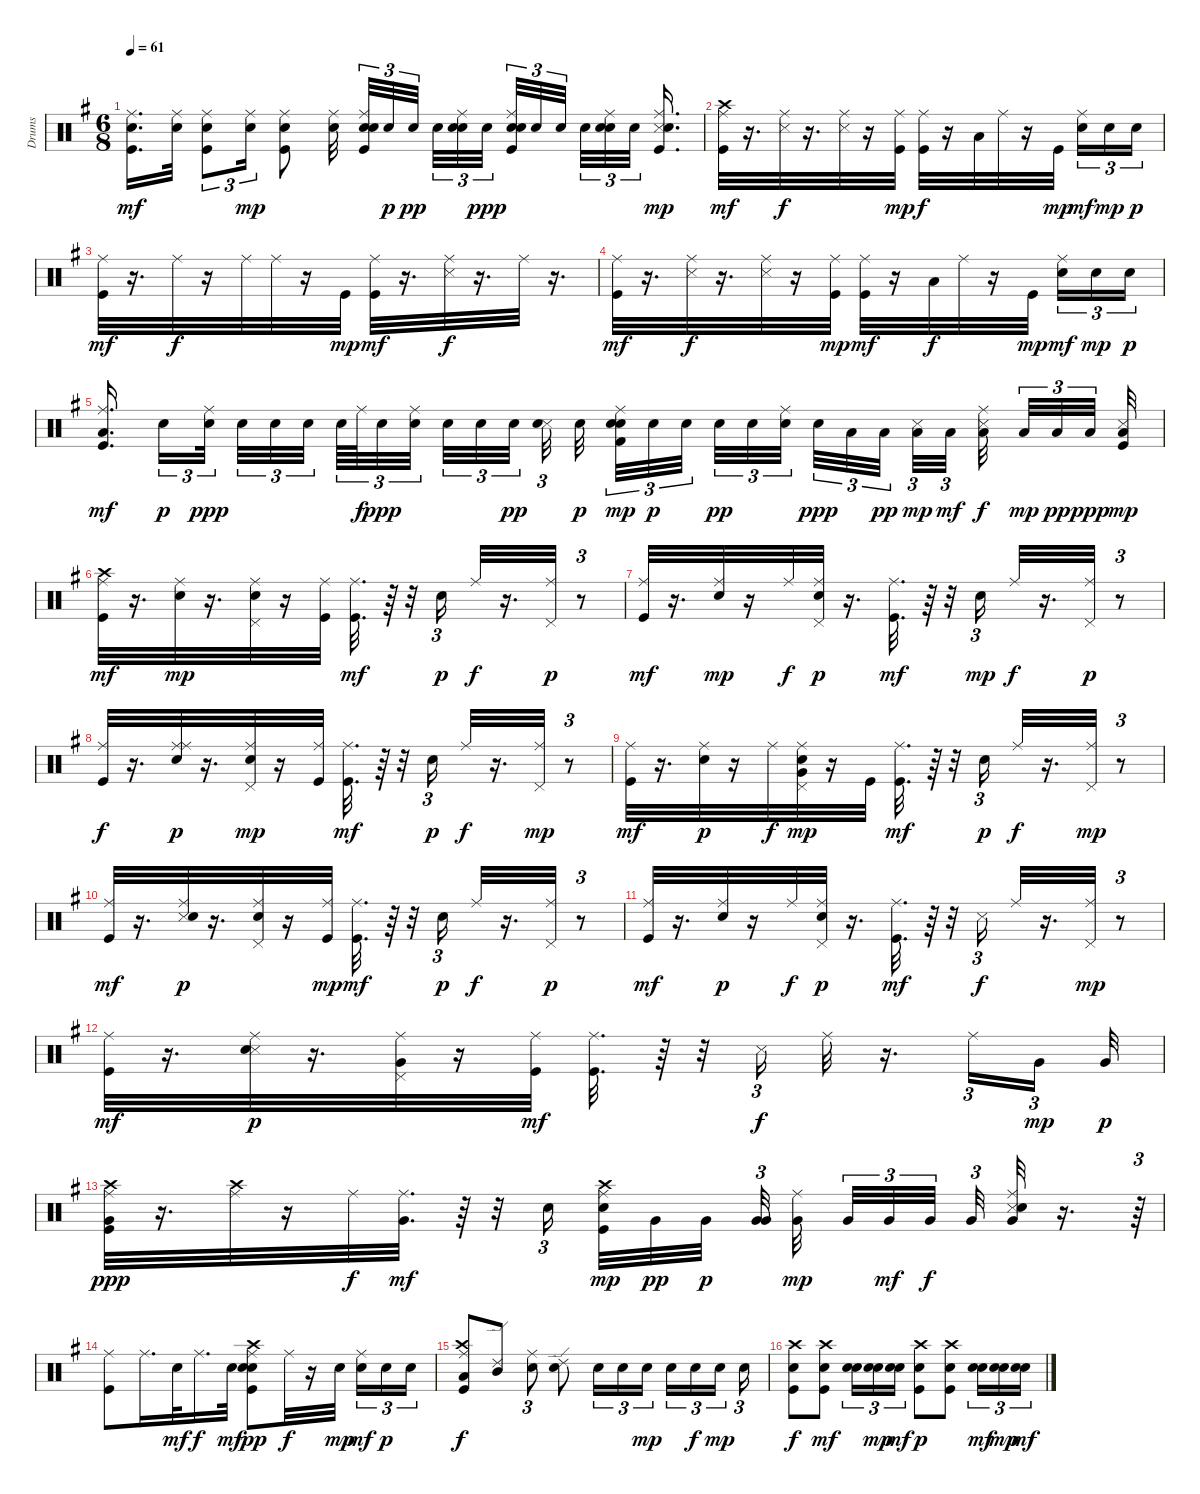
\track ("Drums" "Drums") {instrument percussion}
\staff {score}
\articulation defaults
\ts (6 8)
\tempo 61
\clef neutral
\ks g
("Kick (hit)" "Electric Snare (hit)" "Ride (middle)").16{d dy mf} ("Electric Snare (hit)" "Ride (middle)").32 ("Kick (hit)" "Electric Snare (hit)" "Ride (middle)").8{tu (3 2)} ("Electric Snare (hit)" "Ride (middle)").16{tu (3 2) dy mp} ("Kick (hit)" "Electric Snare (hit)" "Ride (middle)").8 ("Electric Snare (hit)" "Ride (middle)").32{beam splitsecondary} ("Snare (hit) 2" "Kick (hit)" "Electric Snare (hit)" "Ride (middle)").32{tu (3 2)} "Snare (hit) 2".32{tu (3 2) dy p} "Snare (hit) 2".32{tu (3 2) dy pp beam splitsecondary} "Snare (hit) 2".32{tu (3 2)} ("Snare (hit) 2" "Electric Snare (hit)" "Ride (middle)").32{tu (3 2)} "Snare (hit) 2".32{tu (3 2) dy ppp beam splitsecondary} ("Kick (hit)" "Snare (hit) 2" "Electric Snare (hit)" "Ride (middle)").32{tu (3 2)} "Snare (hit) 2".32{tu (3 2)} "Snare (hit) 2".32{tu (3 2) beam splitsecondary} "Snare (hit) 2".32{tu (3 2)} ("Snare (hit) 2" "Electric Snare (hit)" "Ride (middle)").32{tu (3 2)} "Snare (hit) 2".32{tu (3 2) beam splitsecondary} ("Kick (hit)" "Snare (side stick) 3" "Snare (hit) 2" "Ride (middle)").16{d dy mp} |
("Kick (hit)" "Crash high (hit)" "Ride (middle)").32{dy mf} r.16{d} ("Snare (side stick) 3" "Ride (middle)").32{dy f} r.16{d} ("Snare (side stick) 3" "Ride (middle)").32 r.16 ("Kick (hit)" "Ride (middle)").32{dy mp} ("Kick (hit)" "Ride (middle)").32{dy f} r.16 "Low Tom (hit)".32 "Ride (middle)".32 r.16 "Kick (hit)".32{dy mp beam splitsecondary} ("Electric Snare (hit)" "Ride (middle)").16{tu (3 2) dy mf} "Electric Snare (hit)".16{tu (3 2) dy mp} "Electric Snare (hit)".16{tu (3 2) dy p} |
("Kick (hit)" "Ride (middle)").32{dy mf} r.16{d} "Ride (middle)".32{dy f} r.16 "Ride (middle)".32 "Ride (middle)".32 r.16 "Kick (hit)".32{dy mp} ("Kick (hit)" "Ride (middle)").32{dy mf} r.16{d} ("Snare (side stick) 3" "Ride (middle)").32{dy f} r.16{d} "Ride (middle)".32 r.16{d} |
("Kick (hit)" "Ride (middle)").32{dy mf} r.16{d} ("Snare (side stick) 3" "Ride (middle)").32{dy f} r.16{d} ("Snare (side stick) 3" "Ride (middle)").32 r.16 ("Kick (hit)" "Ride (middle)").32{dy mp} ("Kick (hit)" "Ride (middle)").32{dy mf} r.16 "Low Tom (hit)".32{dy f} "Ride (middle)".32 r.16 "Kick (hit)".32{dy mp beam splitsecondary} ("Electric Snare (hit)" "Ride (middle)").16{tu (3 2) dy mf} "Electric Snare (hit)".16{tu (3 2) dy mp} "Electric Snare (hit)".16{tu (3 2) dy p} |
("Kick (hit)" "Low Tom (hit)" "Ride (middle)").16{d dy mf beam splitsecondary} "Electric Snare (hit)".16{tu (3 2) dy p} ("Snare (hit) 2" "Ride (middle)").32{tu (3 2) dy ppp beam splitsecondary} "Snare (hit) 2".32{tu (3 2)} "Snare (hit) 2".32{tu (3 2)} "Snare (hit) 2".32{tu (3 2) beam splitsecondary} "Snare (hit) 2".64{tu (3 2)} "Ride (middle)".64{tu (3 2) dy f} "Snare (hit) 2".32{tu (3 2) dy ppp} ("Snare (hit) 2" "Ride (middle)").32{tu (3 2) beam splitsecondary} "Snare (hit) 2".32{tu (3 2)} "Snare (hit) 2".32{tu (3 2)} "Snare (hit) 2".32{tu (3 2) dy pp beam splitsecondary} ("Snare (side stick) 3" "Snare (hit) 2").32{tu (3 2)} "Snare (hit) 2".32{dy p} ("Ride (middle)" "Snare (hit) 2" "Kick (hit) 2" "Snare (hit) 2").32{tu (3 2) dy mp} "Snare (hit) 2".32{tu (3 2) dy p} "Snare (hit) 2".32{tu (3 2) beam splitsecondary} "Snare (hit) 2".32{tu (3 2) dy pp} "Snare (hit) 2".32{tu (3 2)} ("Snare (hit) 2" "Ride (middle)").32{tu (3 2) beam splitsecondary} "Snare (hit) 2".32{tu (3 2) dy ppp} "Low Floor Tom (hit)".32{tu (3 2)} "Low Floor Tom (hit)".32{tu (3 2) dy pp beam splitsecondary} ("Snare (side stick) 3" "Low Floor Tom (hit)").32{tu (3 2) dy mp} "Low Floor Tom (hit)".32{tu (3 2) dy mf beam splitsecondary} ("Low Floor Tom (hit)" "Ride (middle)" "Snare (side stick) 3").32{dy f beam splitsecondary} "Low Floor Tom (hit)".32{tu (3 2) dy mp} "Low Floor Tom (hit)".32{tu (3 2) dy pp} "Low Floor Tom (hit)".32{tu (3 2) dy ppp beam splitsecondary} ("Kick (hit)" "Low Floor Tom (hit)" "Snare (side stick) 3").32{dy mp} |
("Kick (hit)" "Crash high (hit)" "Ride (middle)").32{dy mf} r.16{d} ("Electric Snare (hit)" "Ride (middle)").32{dy mp} r.16{d} ("Electric Snare (hit)" "Pedal Hi-Hat (hit)" "Ride (middle)").32 r.16 ("Kick (hit)" "Ride (middle)").32 ("Kick (hit)" "Ride (middle)").32{d dy mf} r.64 r.32 "Snare (hit) 2".16{tu (3 2) dy p} "Ride (middle)".32{dy f} r.16{d} ("Pedal Hi-Hat (hit)" "Ride (middle)").32{dy p} r.8{tu (3 2)} |
("Kick (hit)" "Ride (middle)").32{dy mf} r.16{d} ("Electric Snare (hit)" "Ride (middle)").32{dy mp} r.16 "Ride (middle)".32{dy f} ("Electric Snare (hit)" "Pedal Hi-Hat (hit)" "Ride (middle)").32{dy p} r.16{d} ("Kick (hit)" "Ride (middle)").32{d dy mf} r.64 r.32 "Snare (hit) 2".16{tu (3 2) dy mp} "Ride (middle)".32{dy f} r.16{d} ("Pedal Hi-Hat (hit)" "Ride (middle)").32{dy p} r.8{tu (3 2)} |
("Kick (hit)" "Ride (middle)").32{dy f} r.16{d} ("Electric Snare (hit)" "Ride (middle)" "Ride (middle)").32{dy p} r.16{d} ("Electric Snare (hit)" "Pedal Hi-Hat (hit)" "Ride (middle)").32{dy mp} r.16 ("Kick (hit)" "Ride (middle)").32 ("Kick (hit)" "Ride (middle)").32{d dy mf} r.64 r.32 "Snare (hit) 2".16{tu (3 2) dy p} "Ride (middle)".32{dy f} r.16{d} ("Pedal Hi-Hat (hit)" "Ride (middle)").32{dy mp} r.8{tu (3 2)} |
("Kick (hit)" "Ride (middle)").32{dy mf} r.16{d} ("Electric Snare (hit)" "Ride (middle)").32{dy p} r.16 "Ride (middle)".32{dy f} ("Electric Snare (hit)" "Very Low Tom (hit)" "Pedal Hi-Hat (hit)" "Ride (middle)").32{dy mp} r.16 "Kick (hit)".32 ("Kick (hit)" "Ride (middle)").32{d dy mf} r.64 r.32 "Snare (hit) 2".16{tu (3 2) dy p} "Ride (middle)".32{dy f} r.16{d} ("Pedal Hi-Hat (hit)" "Ride (middle)").32{dy mp} r.8{tu (3 2)} |
("Kick (hit)" "Ride (middle)").32{dy mf} r.16{d} ("Snare (side stick) 3" "Electric Snare (hit)" "Ride (middle)").32{dy p} r.16{d} ("Electric Snare (hit)" "Pedal Hi-Hat (hit)" "Ride (middle)").32 r.16 ("Kick (hit)" "Ride (middle)").32{dy mp} ("Kick (hit)" "Ride (middle)").32{d dy mf} r.64 r.32 "Snare (hit) 2".16{tu (3 2) dy p} "Ride (middle)".32{dy f} r.16{d} ("Pedal Hi-Hat (hit)" "Ride (middle)").32{dy p} r.8{tu (3 2)} |
("Kick (hit)" "Ride (middle)").32{dy mf} r.16{d} ("Electric Snare (hit)" "Ride (middle)").32{dy p} r.16 "Ride (middle)".32{dy f} ("Electric Snare (hit)" "Pedal Hi-Hat (hit)" "Ride (middle)").32{dy p} r.16{d} ("Kick (hit)" "Ride (middle)").32{d dy mf} r.64 r.32 "Snare (side stick) 3".16{tu (3 2) dy f} "Ride (middle)".32 r.16{d} ("Pedal Hi-Hat (hit)" "Ride (middle)").32{dy mp} r.8{tu (3 2)} |
("Kick (hit)" "Ride (middle)").32{dy mf} r.16{d} ("Snare (side stick) 3" "Electric Snare (hit)" "Ride (middle)").32{dy p} r.16{d} ("Very Low Tom (hit)" "Pedal Hi-Hat (hit)" "Ride (middle)").32 r.16 ("Kick (hit)" "Ride (middle)").32{dy mf} ("Kick (hit)" "Ride (middle)").32{d} r.64 r.32 "Snare (side stick) 3".16{tu (3 2) dy f} "Ride (middle)".32 r.16{d} "Ride (middle)".16{tu (3 2)} "Very Low Tom (hit)".16{tu (3 2) dy mp beam splitsecondary} "Very Low Tom (hit)".32{dy p} |
("Kick (hit)" "Very Low Tom (hit)" "Crash high (hit)" "Ride (middle)").32{dy ppp} r.16{d} ("Crash high (hit)" "Ride (middle)").32 r.16 "Ride (middle)".32{dy f} ("Very Low Tom (hit)" "Ride (middle)").32{d dy mf} r.64 r.32 "Electric Snare (hit)".16{tu (3 2)} ("Kick (hit)" "Crash high (hit)" "Ride (middle)" "Electric Snare (hit)").32{dy mp} "Very Low Tom (hit)".32{dy pp} "Very Low Tom (hit)".32{dy p beam splitsecondary} ("Very Low Tom (hit)" "Very Low Tom (hit)").32{tu (3 2) beam splitsecondary} ("Very Low Tom (hit)" "Ride (middle)").32{dy mp beam splitsecondary} "Very Low Tom (hit)".32{tu (3 2)} "Very Low Tom (hit)".32{tu (3 2) dy mf} "Very Low Tom (hit)".32{tu (3 2) dy f beam splitsecondary} "Very Low Tom (hit)".32{tu (3 2)} ("Very Low Tom (hit)" "Snare (side stick) 3" "Electric Snare (hit)" "Ride (middle)").32 r.16{d} r.64{tu (3 2)} |
("Kick (hit)" "Ride (middle)").8 "Ride (middle)".16{d} "Snare (hit) 2".32{dy mf} "Ride (middle)".16{d dy f} "Electric Snare (hit)".32{dy mf} ("Kick (hit)" "Snare (hit) 2" "Electric Snare (hit)" "Ride (middle)" "Crash high (hit)").8{dy pp} "Ride (middle)".32{dy f} r.16 "Electric Snare (hit)".32{dy mp beam splitsecondary} ("Electric Snare (hit)" "Ride (middle)").16{tu (3 2) dy mf} "Electric Snare (hit)".16{tu (3 2) dy p} "Electric Snare (hit)".16{tu (3 2)} |
("Kick (hit)" "Low Tom (hit)" "Crash high (hit)" "Ride (middle)").8{dy f} ("Mid Tom (hit)" "Ride (edge) 2").8 ("Electric Snare (hit)" "Ride (middle)").8{tu (3 2)} ("Electric Snare (hit)" "Ride (edge) 2").8 "Electric Snare (hit)".16{tu (3 2)} "Electric Snare (hit)".16{tu (3 2)} "Electric Snare (hit)".16{tu (3 2) dy mp beam splitsecondary} "Electric Snare (hit)".16{tu (3 2)} "Electric Snare (hit)".16{tu (3 2) dy f} "Electric Snare (hit)".16{tu (3 2) dy mp beam splitsecondary} "Electric Snare (hit)".16{tu (3 2)} |
("Kick (hit)" "Electric Snare (hit)" "Crash high (hit)").8{dy f} ("Kick (hit)" "Electric Snare (hit)" "Crash high (hit)").8{dy mf} ("Snare (hit) 2" "Electric Snare (hit)").16{tu (3 2)} ("Snare (hit) 2" "Electric Snare (hit)").16{tu (3 2) dy mp} ("Snare (hit) 2" "Electric Snare (hit)").16{tu (3 2) dy mf} ("Kick (hit)" "Electric Snare (hit)" "Crash high (hit)").8{dy p} ("Kick (hit)" "Electric Snare (hit)" "Crash high (hit)").8 ("Snare (hit) 2" "Electric Snare (hit)").16{tu (3 2) dy mf} ("Snare (hit) 2" "Electric Snare (hit)").16{tu (3 2) dy mp} ("Snare (hit) 2" "Electric Snare (hit)").16{tu (3 2) dy mf}
